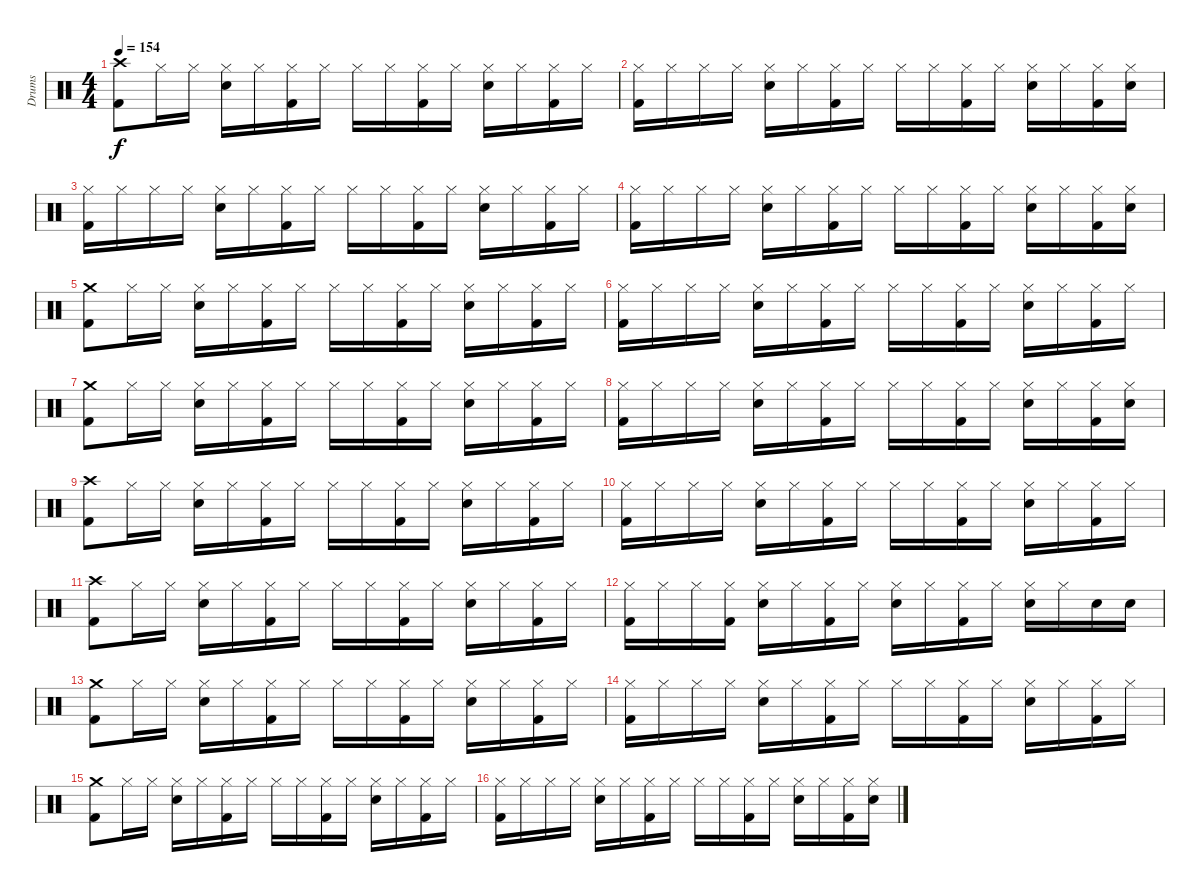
\track ("Drums" "Drums") {instrument percussion}
\staff {score}
\articulation defaults
\ts (4 4)
\tempo 154
\clef neutral
\ks c
("Crash high (hit)" "Kick (hit) 2").8{dy f} "Hi-Hat (closed)".16 "Hi-Hat (closed)".16 ("Hi-Hat (closed)" "Electric Snare (hit)").16 "Hi-Hat (closed)".16 ("Kick (hit) 2" "Hi-Hat (closed)").16 "Hi-Hat (closed)".16 "Hi-Hat (closed)".16 "Hi-Hat (closed)".16 ("Kick (hit) 2" "Hi-Hat (closed)").16 "Hi-Hat (closed)".16 ("Electric Snare (hit)" "Hi-Hat (closed)").16 "Hi-Hat (closed)".16 ("Kick (hit) 2" "Hi-Hat (closed)").16 "Hi-Hat (closed)".16 |
("Hi-Hat (closed)" "Kick (hit) 2").16 "Hi-Hat (closed)".16 "Hi-Hat (closed)".16 "Hi-Hat (closed)".16 ("Hi-Hat (closed)" "Electric Snare (hit)").16 "Hi-Hat (closed)".16 ("Kick (hit) 2" "Hi-Hat (closed)").16 "Hi-Hat (closed)".16 "Hi-Hat (closed)".16 "Hi-Hat (closed)".16 ("Kick (hit) 2" "Hi-Hat (closed)").16 "Hi-Hat (closed)".16 ("Electric Snare (hit)" "Hi-Hat (closed)").16 "Hi-Hat (closed)".16 ("Kick (hit) 2" "Hi-Hat (closed)").16 ("Electric Snare (hit)" "Hi-Hat (closed)").16 |
("Hi-Hat (closed)" "Kick (hit) 2").16 "Hi-Hat (closed)".16 "Hi-Hat (closed)".16 "Hi-Hat (closed)".16 ("Hi-Hat (closed)" "Electric Snare (hit)").16 "Hi-Hat (closed)".16 ("Kick (hit) 2" "Hi-Hat (closed)").16 "Hi-Hat (closed)".16 "Hi-Hat (closed)".16 "Hi-Hat (closed)".16 ("Kick (hit) 2" "Hi-Hat (closed)").16 "Hi-Hat (closed)".16 ("Electric Snare (hit)" "Hi-Hat (closed)").16 "Hi-Hat (closed)".16 ("Kick (hit) 2" "Hi-Hat (closed)").16 "Hi-Hat (closed)".16 |
("Hi-Hat (closed)" "Kick (hit) 2").16 "Hi-Hat (closed)".16 "Hi-Hat (closed)".16 "Hi-Hat (closed)".16 ("Hi-Hat (closed)" "Electric Snare (hit)").16 "Hi-Hat (closed)".16 ("Kick (hit) 2" "Hi-Hat (closed)").16 "Hi-Hat (closed)".16 "Hi-Hat (closed)".16 "Hi-Hat (closed)".16 ("Kick (hit) 2" "Hi-Hat (closed)").16 "Hi-Hat (closed)".16 ("Electric Snare (hit)" "Hi-Hat (closed)").16 "Hi-Hat (closed)".16 ("Kick (hit) 2" "Hi-Hat (closed)").16 ("Electric Snare (hit)" "Hi-Hat (closed)").16 |
("Crash medium (hit)" "Kick (hit) 2").8 "Hi-Hat (closed)".16 "Hi-Hat (closed)".16 ("Hi-Hat (closed)" "Electric Snare (hit)").16 "Hi-Hat (closed)".16 ("Kick (hit) 2" "Hi-Hat (closed)").16 "Hi-Hat (closed)".16 "Hi-Hat (closed)".16 "Hi-Hat (closed)".16 ("Kick (hit) 2" "Hi-Hat (closed)").16 "Hi-Hat (closed)".16 ("Electric Snare (hit)" "Hi-Hat (closed)").16 "Hi-Hat (closed)".16 ("Kick (hit) 2" "Hi-Hat (closed)").16 "Hi-Hat (closed)".16 |
("Hi-Hat (closed)" "Kick (hit) 2").16 "Hi-Hat (closed)".16 "Hi-Hat (closed)".16 "Hi-Hat (closed)".16 ("Hi-Hat (closed)" "Electric Snare (hit)").16 "Hi-Hat (closed)".16 ("Kick (hit) 2" "Hi-Hat (closed)").16 "Hi-Hat (closed)".16 "Hi-Hat (closed)".16 "Hi-Hat (closed)".16 ("Kick (hit) 2" "Hi-Hat (closed)").16 "Hi-Hat (closed)".16 ("Electric Snare (hit)" "Hi-Hat (closed)").16 "Hi-Hat (closed)".16 ("Kick (hit) 2" "Hi-Hat (closed)").16 "Hi-Hat (closed)".16 |
("Crash medium (hit)" "Kick (hit) 2").8 "Hi-Hat (closed)".16 "Hi-Hat (closed)".16 ("Hi-Hat (closed)" "Electric Snare (hit)").16 "Hi-Hat (closed)".16 ("Kick (hit) 2" "Hi-Hat (closed)").16 "Hi-Hat (closed)".16 "Hi-Hat (closed)".16 "Hi-Hat (closed)".16 ("Kick (hit) 2" "Hi-Hat (closed)").16 "Hi-Hat (closed)".16 ("Electric Snare (hit)" "Hi-Hat (closed)").16 "Hi-Hat (closed)".16 ("Kick (hit) 2" "Hi-Hat (closed)").16 "Hi-Hat (closed)".16 |
("Hi-Hat (closed)" "Kick (hit) 2").16 "Hi-Hat (closed)".16 "Hi-Hat (closed)".16 "Hi-Hat (closed)".16 ("Hi-Hat (closed)" "Electric Snare (hit)").16 "Hi-Hat (closed)".16 ("Kick (hit) 2" "Hi-Hat (closed)").16 "Hi-Hat (closed)".16 "Hi-Hat (closed)".16 "Hi-Hat (closed)".16 ("Kick (hit) 2" "Hi-Hat (closed)").16 "Hi-Hat (closed)".16 ("Electric Snare (hit)" "Hi-Hat (closed)").16 "Hi-Hat (closed)".16 ("Kick (hit) 2" "Hi-Hat (closed)").16 ("Electric Snare (hit)" "Hi-Hat (closed)").16 |
("Crash high (hit)" "Kick (hit) 2").8 "Hi-Hat (closed)".16 "Hi-Hat (closed)".16 ("Hi-Hat (closed)" "Electric Snare (hit)").16 "Hi-Hat (closed)".16 ("Kick (hit) 2" "Hi-Hat (closed)").16 "Hi-Hat (closed)".16 "Hi-Hat (closed)".16 "Hi-Hat (closed)".16 ("Kick (hit) 2" "Hi-Hat (closed)").16 "Hi-Hat (closed)".16 ("Electric Snare (hit)" "Hi-Hat (closed)").16 "Hi-Hat (closed)".16 ("Kick (hit) 2" "Hi-Hat (closed)").16 "Hi-Hat (closed)".16 |
("Hi-Hat (closed)" "Kick (hit) 2").16 "Hi-Hat (closed)".16 "Hi-Hat (closed)".16 "Hi-Hat (closed)".16 ("Hi-Hat (closed)" "Electric Snare (hit)").16 "Hi-Hat (closed)".16 ("Kick (hit) 2" "Hi-Hat (closed)").16 "Hi-Hat (closed)".16 "Hi-Hat (closed)".16 "Hi-Hat (closed)".16 ("Kick (hit) 2" "Hi-Hat (closed)").16 "Hi-Hat (closed)".16 ("Electric Snare (hit)" "Hi-Hat (closed)").16 "Hi-Hat (closed)".16 ("Kick (hit) 2" "Hi-Hat (closed)").16 "Hi-Hat (closed)".16 |
("Crash high (hit)" "Kick (hit) 2").8 "Hi-Hat (closed)".16 "Hi-Hat (closed)".16 ("Hi-Hat (closed)" "Electric Snare (hit)").16 "Hi-Hat (closed)".16 ("Kick (hit) 2" "Hi-Hat (closed)").16 "Hi-Hat (closed)".16 "Hi-Hat (closed)".16 "Hi-Hat (closed)".16 ("Kick (hit) 2" "Hi-Hat (closed)").16 "Hi-Hat (closed)".16 ("Electric Snare (hit)" "Hi-Hat (closed)").16 "Hi-Hat (closed)".16 ("Kick (hit) 2" "Hi-Hat (closed)").16 "Hi-Hat (closed)".16 |
("Hi-Hat (closed)" "Kick (hit) 2").16 "Hi-Hat (closed)".16 "Hi-Hat (closed)".16 ("Kick (hit) 2" "Hi-Hat (closed)").16 ("Hi-Hat (closed)" "Electric Snare (hit)").16 "Hi-Hat (closed)".16 ("Kick (hit) 2" "Hi-Hat (closed)").16 "Hi-Hat (closed)".16 ("Electric Snare (hit)" "Hi-Hat (closed)").16 "Hi-Hat (closed)".16 ("Kick (hit) 2" "Hi-Hat (closed)").16 "Hi-Hat (closed)".16 ("Hi-Hat (closed)" "Electric Snare (hit)").16 "Hi-Hat (closed)".16 "Electric Snare (hit)".16 "Electric Snare (hit)".16 |
("Crash medium (hit)" "Kick (hit) 2").8 "Hi-Hat (closed)".16 "Hi-Hat (closed)".16 ("Hi-Hat (closed)" "Electric Snare (hit)").16 "Hi-Hat (closed)".16 ("Kick (hit) 2" "Hi-Hat (closed)").16 "Hi-Hat (closed)".16 "Hi-Hat (closed)".16 "Hi-Hat (closed)".16 ("Kick (hit) 2" "Hi-Hat (closed)").16 "Hi-Hat (closed)".16 ("Electric Snare (hit)" "Hi-Hat (closed)").16 "Hi-Hat (closed)".16 ("Kick (hit) 2" "Hi-Hat (closed)").16 "Hi-Hat (closed)".16 |
("Hi-Hat (closed)" "Kick (hit) 2").16 "Hi-Hat (closed)".16 "Hi-Hat (closed)".16 "Hi-Hat (closed)".16 ("Hi-Hat (closed)" "Electric Snare (hit)").16 "Hi-Hat (closed)".16 ("Kick (hit) 2" "Hi-Hat (closed)").16 "Hi-Hat (closed)".16 "Hi-Hat (closed)".16 "Hi-Hat (closed)".16 ("Kick (hit) 2" "Hi-Hat (closed)").16 "Hi-Hat (closed)".16 ("Electric Snare (hit)" "Hi-Hat (closed)").16 "Hi-Hat (closed)".16 ("Kick (hit) 2" "Hi-Hat (closed)").16 "Hi-Hat (closed)".16 |
("Crash medium (hit)" "Kick (hit) 2").8 "Hi-Hat (closed)".16 "Hi-Hat (closed)".16 ("Hi-Hat (closed)" "Electric Snare (hit)").16 "Hi-Hat (closed)".16 ("Kick (hit) 2" "Hi-Hat (closed)").16 "Hi-Hat (closed)".16 "Hi-Hat (closed)".16 "Hi-Hat (closed)".16 ("Kick (hit) 2" "Hi-Hat (closed)").16 "Hi-Hat (closed)".16 ("Electric Snare (hit)" "Hi-Hat (closed)").16 "Hi-Hat (closed)".16 ("Kick (hit) 2" "Hi-Hat (closed)").16 "Hi-Hat (closed)".16 |
("Hi-Hat (closed)" "Kick (hit) 2").16 "Hi-Hat (closed)".16 "Hi-Hat (closed)".16 "Hi-Hat (closed)".16 ("Hi-Hat (closed)" "Electric Snare (hit)").16 "Hi-Hat (closed)".16 ("Kick (hit) 2" "Hi-Hat (closed)").16 "Hi-Hat (closed)".16 "Hi-Hat (closed)".16 "Hi-Hat (closed)".16 ("Kick (hit) 2" "Hi-Hat (closed)").16 "Hi-Hat (closed)".16 ("Electric Snare (hit)" "Hi-Hat (closed)").16 "Hi-Hat (closed)".16 ("Kick (hit) 2" "Hi-Hat (closed)").16 ("Electric Snare (hit)" "Hi-Hat (closed)").16
